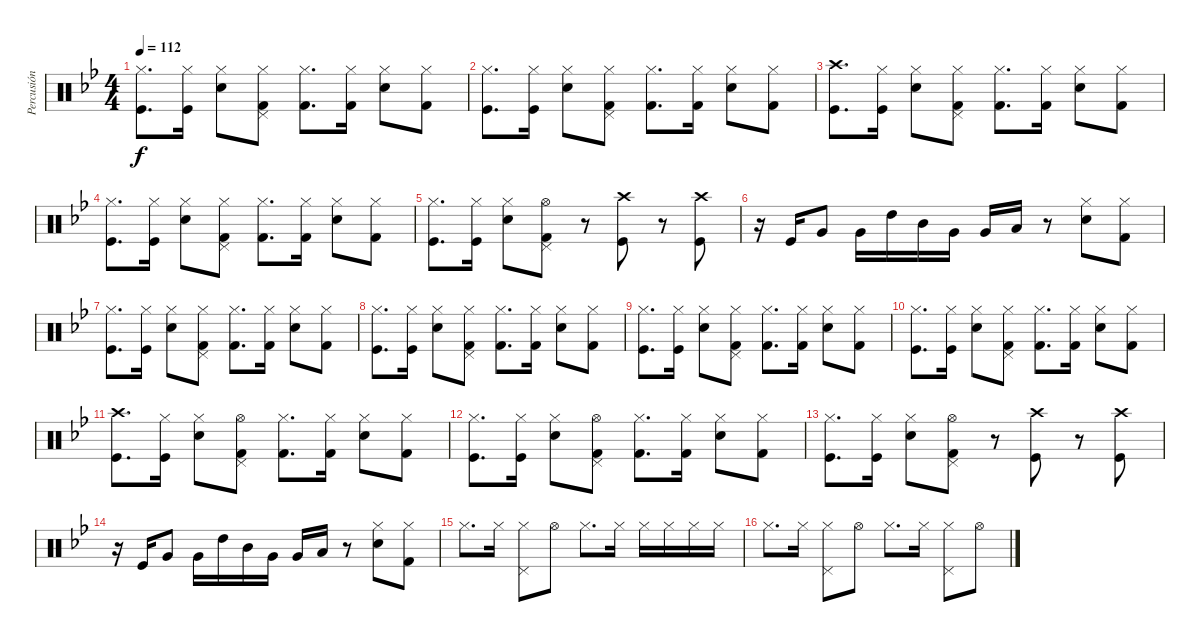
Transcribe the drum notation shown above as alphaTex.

\track ("Percusión" "Percusión") {instrument percussion}
\staff {score}
\articulation defaults
\ts (4 4)
\tempo 112
\clef neutral
\ks bb
("Hi-Hat (closed)" "Kick (hit)").8{d dy f} ("Kick (hit)" "Hi-Hat (closed)").16 ("Hi-Hat (closed)" "Snare (hit) 2").8 ("Hi-Hat (closed)" "Kick (hit) 2" "Pedal Hi-Hat (hit)").8 ("Kick (hit) 2" "Hi-Hat (closed)").8{d} ("Kick (hit) 2" "Hi-Hat (closed)").16 ("Snare (hit) 2" "Hi-Hat (closed)").8 ("Hi-Hat (closed)" "Kick (hit) 2").8 |
("Hi-Hat (closed)" "Kick (hit)").8{d} ("Kick (hit)" "Hi-Hat (closed)").16 ("Hi-Hat (closed)" "Snare (hit) 2").8 ("Hi-Hat (closed)" "Kick (hit) 2" "Pedal Hi-Hat (hit)").8 ("Kick (hit) 2" "Hi-Hat (closed)").8{d} ("Kick (hit) 2" "Hi-Hat (closed)").16 ("Snare (hit) 2" "Hi-Hat (closed)").8 ("Hi-Hat (closed)" "Kick (hit) 2").8 |
("Crash high (hit)" "Kick (hit)").8{d} ("Kick (hit)" "Hi-Hat (closed)").16 ("Hi-Hat (closed)" "Snare (hit) 2").8 ("Hi-Hat (closed)" "Kick (hit) 2" "Pedal Hi-Hat (hit)").8 ("Kick (hit) 2" "Hi-Hat (closed)").8{d} ("Kick (hit) 2" "Hi-Hat (closed)").16 ("Snare (hit) 2" "Hi-Hat (closed)").8 ("Hi-Hat (closed)" "Kick (hit) 2").8 |
("Hi-Hat (closed)" "Kick (hit)").8{d} ("Kick (hit)" "Hi-Hat (closed)").16 ("Hi-Hat (closed)" "Snare (hit) 2").8 ("Hi-Hat (closed)" "Kick (hit) 2" "Pedal Hi-Hat (hit)").8 ("Kick (hit) 2" "Hi-Hat (closed)").8{d} ("Kick (hit) 2" "Hi-Hat (closed)").16 ("Snare (hit) 2" "Hi-Hat (closed)").8 ("Hi-Hat (closed)" "Kick (hit) 2").8 |
("Hi-Hat (closed)" "Kick (hit)").8{d} ("Kick (hit)" "Hi-Hat (closed)").16 ("Hi-Hat (closed)" "Snare (hit) 2").8 ("Kick (hit) 2" "Pedal Hi-Hat (hit)" "Hi-Hat (open)").8 r.8 ("Kick (hit)" "Crash high (hit)").8 r.8 ("Crash high (hit)" "Kick (hit)").8 |
r.16 "Kick (hit)".16 "Very Low Tom (hit)".8 "Very Low Tom (hit)".16 "High Tom (hit)".16 "Mid Tom (hit)".16 "Very Low Tom (hit)".16 "Very Low Tom (hit)".16 "Low Floor Tom (hit)".16 r.8 ("Snare (hit) 2" "Hi-Hat (closed)").8 ("Hi-Hat (closed)" "Kick (hit) 2").8 |
("Hi-Hat (closed)" "Kick (hit)").8{d} ("Kick (hit)" "Hi-Hat (closed)").16 ("Hi-Hat (closed)" "Snare (hit) 2").8 ("Hi-Hat (closed)" "Kick (hit) 2" "Pedal Hi-Hat (hit)").8 ("Kick (hit) 2" "Hi-Hat (closed)").8{d} ("Kick (hit) 2" "Hi-Hat (closed)").16 ("Snare (hit) 2" "Hi-Hat (closed)").8 ("Hi-Hat (closed)" "Kick (hit) 2").8 |
("Hi-Hat (closed)" "Kick (hit)").8{d} ("Kick (hit)" "Hi-Hat (closed)").16 ("Hi-Hat (closed)" "Snare (hit) 2").8 ("Hi-Hat (closed)" "Kick (hit) 2" "Pedal Hi-Hat (hit)").8 ("Kick (hit) 2" "Hi-Hat (closed)").8{d} ("Kick (hit) 2" "Hi-Hat (closed)").16 ("Snare (hit) 2" "Hi-Hat (closed)").8 ("Hi-Hat (closed)" "Kick (hit) 2").8 |
("Hi-Hat (closed)" "Kick (hit)").8{d} ("Kick (hit)" "Hi-Hat (closed)").16 ("Hi-Hat (closed)" "Snare (hit) 2").8 ("Hi-Hat (closed)" "Kick (hit) 2" "Pedal Hi-Hat (hit)").8 ("Kick (hit) 2" "Hi-Hat (closed)").8{d} ("Kick (hit) 2" "Hi-Hat (closed)").16 ("Snare (hit) 2" "Hi-Hat (closed)").8 ("Hi-Hat (closed)" "Kick (hit) 2").8 |
("Hi-Hat (closed)" "Kick (hit)").8{d} ("Kick (hit)" "Hi-Hat (closed)").16 ("Hi-Hat (closed)" "Snare (hit) 2").8 ("Hi-Hat (closed)" "Kick (hit) 2" "Pedal Hi-Hat (hit)").8 ("Kick (hit) 2" "Hi-Hat (closed)").8{d} ("Kick (hit) 2" "Hi-Hat (closed)").16 ("Snare (hit) 2" "Hi-Hat (closed)").8 ("Hi-Hat (closed)" "Kick (hit) 2").8 |
("Crash high (hit)" "Kick (hit)").8{d} ("Kick (hit)" "Hi-Hat (closed)").16 ("Hi-Hat (closed)" "Snare (hit) 2").8 ("Kick (hit) 2" "Pedal Hi-Hat (hit)" "Hi-Hat (open)").8 ("Kick (hit) 2" "Hi-Hat (closed)").8{d} ("Kick (hit) 2" "Hi-Hat (closed)").16 ("Snare (hit) 2" "Hi-Hat (closed)").8 ("Hi-Hat (closed)" "Kick (hit) 2").8 |
("Hi-Hat (closed)" "Kick (hit)").8{d} ("Kick (hit)" "Hi-Hat (closed)").16 ("Hi-Hat (closed)" "Snare (hit) 2").8 ("Kick (hit) 2" "Pedal Hi-Hat (hit)" "Hi-Hat (open)").8 ("Kick (hit) 2" "Hi-Hat (closed)").8{d} ("Kick (hit) 2" "Hi-Hat (closed)").16 ("Snare (hit) 2" "Hi-Hat (closed)").8 ("Hi-Hat (closed)" "Kick (hit) 2").8 |
("Hi-Hat (closed)" "Kick (hit)").8{d} ("Kick (hit)" "Hi-Hat (closed)").16 ("Hi-Hat (closed)" "Snare (hit) 2").8 ("Kick (hit) 2" "Pedal Hi-Hat (hit)" "Hi-Hat (open)").8 r.8 ("Kick (hit)" "Crash high (hit)").8 r.8 ("Crash high (hit)" "Kick (hit)").8 |
r.16 "Kick (hit)".16 "Very Low Tom (hit)".8 "Very Low Tom (hit)".16 "High Tom (hit)".16 "Mid Tom (hit)".16 "Very Low Tom (hit)".16 "Very Low Tom (hit)".16 "Low Floor Tom (hit)".16 r.8 ("Snare (hit) 2" "Hi-Hat (closed)").8 ("Hi-Hat (closed)" "Kick (hit) 2").8 |
"Hi-Hat (closed)".8{d} "Hi-Hat (closed)".16 ("Hi-Hat (closed)" "Pedal Hi-Hat (hit)").8 "Hi-Hat (open)".8 "Hi-Hat (closed)".8{d} "Hi-Hat (closed)".16 "Hi-Hat (closed)".16 "Hi-Hat (closed)".16 "Hi-Hat (closed)".16 "Hi-Hat (closed)".16 |
"Hi-Hat (closed)".8{d} "Hi-Hat (closed)".16 ("Hi-Hat (closed)" "Pedal Hi-Hat (hit)").8 "Hi-Hat (open)".8 "Hi-Hat (closed)".8{d} "Hi-Hat (closed)".16 ("Hi-Hat (closed)" "Pedal Hi-Hat (hit)").8 "Hi-Hat (open)".8
